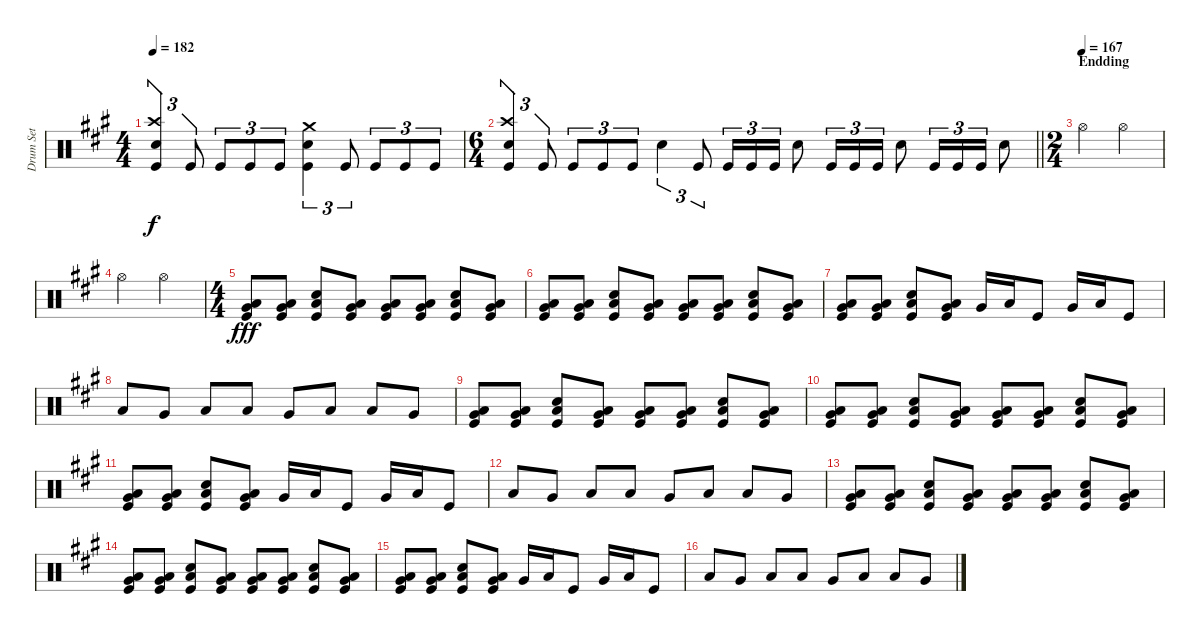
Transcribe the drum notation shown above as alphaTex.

\track ("Drum Set" "Drum Set") {instrument percussion}
\staff {score}
\articulation defaults
\ts (4 4)
\tempo 182
\clef neutral
\ks a
("Electric Snare (hit)" "Crash high (hit)" "Kick (hit)").4{tu (3 2) dy f} "Kick (hit)".8{tu (3 2)} "Kick (hit)".8{tu (3 2)} "Kick (hit)".8{tu (3 2)} "Kick (hit)".8{tu (3 2)} ("Electric Snare (hit)" "Crash medium (hit)" "Kick (hit)").4{tu (3 2)} "Kick (hit)".8{tu (3 2)} "Kick (hit)".8{tu (3 2)} "Kick (hit)".8{tu (3 2)} "Kick (hit)".8{tu (3 2)} |
\ts (6 4)
\barLineRight lightlight
("Electric Snare (hit)" "Crash high (hit)" "Kick (hit)").4{tu (3 2)} "Kick (hit)".8{tu (3 2)} "Kick (hit)".8{tu (3 2)} "Kick (hit)".8{tu (3 2)} "Kick (hit)".8{tu (3 2)} "Electric Snare (hit)".4{tu (3 2)} "Kick (hit)".8{tu (3 2)} "Kick (hit)".16{tu (3 2)} "Kick (hit)".16{tu (3 2)} "Kick (hit)".16{tu (3 2)} "Electric Snare (hit)".8 "Kick (hit)".16{tu (3 2)} "Kick (hit)".16{tu (3 2)} "Kick (hit)".16{tu (3 2)} "Electric Snare (hit)".8 "Kick (hit)".16{tu (3 2)} "Kick (hit)".16{tu (3 2)} "Kick (hit)".16{tu (3 2)} "Electric Snare (hit)".8 |
\ts (2 4)
\section ("" "Endding")
\tempo (167)
"Hi-Hat (open)".4 "Hi-Hat (open)".4 |
"Hi-Hat (open)".4 "Hi-Hat (open)".4 |
\ts (4 4)
("Very Low Tom (hit)" "Low Floor Tom (hit)" "Kick (hit)").8{dy fff} ("Very Low Tom (hit)" "Low Floor Tom (hit)" "Kick (hit)").8 ("Electric Snare (hit)" "Low Floor Tom (hit)" "Kick (hit)").8 ("Very Low Tom (hit)" "Low Floor Tom (hit)" "Kick (hit)").8 ("Very Low Tom (hit)" "Low Floor Tom (hit)" "Kick (hit)").8 ("Very Low Tom (hit)" "Low Floor Tom (hit)" "Kick (hit)").8 ("Electric Snare (hit)" "Low Floor Tom (hit)" "Kick (hit)").8 ("Very Low Tom (hit)" "Low Floor Tom (hit)" "Kick (hit)").8 |
("Very Low Tom (hit)" "Low Floor Tom (hit)" "Kick (hit)").8 ("Very Low Tom (hit)" "Low Floor Tom (hit)" "Kick (hit)").8 ("Electric Snare (hit)" "Low Floor Tom (hit)" "Kick (hit)").8 ("Very Low Tom (hit)" "Low Floor Tom (hit)" "Kick (hit)").8 ("Very Low Tom (hit)" "Low Floor Tom (hit)" "Kick (hit)").8 ("Very Low Tom (hit)" "Low Floor Tom (hit)" "Kick (hit)").8 ("Electric Snare (hit)" "Low Floor Tom (hit)" "Kick (hit)").8 ("Very Low Tom (hit)" "Low Floor Tom (hit)" "Kick (hit)").8 |
("Very Low Tom (hit)" "Low Floor Tom (hit)" "Kick (hit)").8 ("Very Low Tom (hit)" "Low Floor Tom (hit)" "Kick (hit)").8 ("Electric Snare (hit)" "Low Floor Tom (hit)" "Kick (hit)").8 ("Very Low Tom (hit)" "Low Floor Tom (hit)" "Kick (hit)").8 "Very Low Tom (hit)".16 "Low Floor Tom (hit)".16 "Kick (hit)".8 "Very Low Tom (hit)".16 "Low Floor Tom (hit)".16 "Kick (hit)".8 |
"Low Tom (hit)".8 "Very Low Tom (hit)".8 "Low Floor Tom (hit)".8 "Low Tom (hit)".8 "Very Low Tom (hit)".8 "Low Floor Tom (hit)".8 "Low Tom (hit)".8 "Very Low Tom (hit)".8 |
("Very Low Tom (hit)" "Low Floor Tom (hit)" "Kick (hit)").8 ("Very Low Tom (hit)" "Low Floor Tom (hit)" "Kick (hit)").8 ("Electric Snare (hit)" "Low Floor Tom (hit)" "Kick (hit)").8 ("Very Low Tom (hit)" "Low Floor Tom (hit)" "Kick (hit)").8 ("Very Low Tom (hit)" "Low Floor Tom (hit)" "Kick (hit)").8 ("Very Low Tom (hit)" "Low Floor Tom (hit)" "Kick (hit)").8 ("Electric Snare (hit)" "Low Floor Tom (hit)" "Kick (hit)").8 ("Very Low Tom (hit)" "Low Floor Tom (hit)" "Kick (hit)").8 |
("Very Low Tom (hit)" "Low Floor Tom (hit)" "Kick (hit)").8 ("Very Low Tom (hit)" "Low Floor Tom (hit)" "Kick (hit)").8 ("Electric Snare (hit)" "Low Floor Tom (hit)" "Kick (hit)").8 ("Very Low Tom (hit)" "Low Floor Tom (hit)" "Kick (hit)").8 ("Very Low Tom (hit)" "Low Floor Tom (hit)" "Kick (hit)").8 ("Very Low Tom (hit)" "Low Floor Tom (hit)" "Kick (hit)").8 ("Electric Snare (hit)" "Low Floor Tom (hit)" "Kick (hit)").8 ("Very Low Tom (hit)" "Low Floor Tom (hit)" "Kick (hit)").8 |
("Very Low Tom (hit)" "Low Floor Tom (hit)" "Kick (hit)").8 ("Very Low Tom (hit)" "Low Floor Tom (hit)" "Kick (hit)").8 ("Electric Snare (hit)" "Low Floor Tom (hit)" "Kick (hit)").8 ("Very Low Tom (hit)" "Low Floor Tom (hit)" "Kick (hit)").8 "Very Low Tom (hit)".16 "Low Floor Tom (hit)".16 "Kick (hit)".8 "Very Low Tom (hit)".16 "Low Floor Tom (hit)".16 "Kick (hit)".8 |
"Low Tom (hit)".8 "Very Low Tom (hit)".8 "Low Floor Tom (hit)".8 "Low Tom (hit)".8 "Very Low Tom (hit)".8 "Low Floor Tom (hit)".8 "Low Tom (hit)".8 "Very Low Tom (hit)".8 |
("Very Low Tom (hit)" "Low Floor Tom (hit)" "Kick (hit)").8 ("Very Low Tom (hit)" "Low Floor Tom (hit)" "Kick (hit)").8 ("Electric Snare (hit)" "Low Floor Tom (hit)" "Kick (hit)").8 ("Very Low Tom (hit)" "Low Floor Tom (hit)" "Kick (hit)").8 ("Very Low Tom (hit)" "Low Floor Tom (hit)" "Kick (hit)").8 ("Very Low Tom (hit)" "Low Floor Tom (hit)" "Kick (hit)").8 ("Electric Snare (hit)" "Low Floor Tom (hit)" "Kick (hit)").8 ("Very Low Tom (hit)" "Low Floor Tom (hit)" "Kick (hit)").8 |
("Very Low Tom (hit)" "Low Floor Tom (hit)" "Kick (hit)").8 ("Very Low Tom (hit)" "Low Floor Tom (hit)" "Kick (hit)").8 ("Electric Snare (hit)" "Low Floor Tom (hit)" "Kick (hit)").8 ("Very Low Tom (hit)" "Low Floor Tom (hit)" "Kick (hit)").8 ("Very Low Tom (hit)" "Low Floor Tom (hit)" "Kick (hit)").8 ("Very Low Tom (hit)" "Low Floor Tom (hit)" "Kick (hit)").8 ("Electric Snare (hit)" "Low Floor Tom (hit)" "Kick (hit)").8 ("Very Low Tom (hit)" "Low Floor Tom (hit)" "Kick (hit)").8 |
("Very Low Tom (hit)" "Low Floor Tom (hit)" "Kick (hit)").8 ("Very Low Tom (hit)" "Low Floor Tom (hit)" "Kick (hit)").8 ("Electric Snare (hit)" "Low Floor Tom (hit)" "Kick (hit)").8 ("Very Low Tom (hit)" "Low Floor Tom (hit)" "Kick (hit)").8 "Very Low Tom (hit)".16 "Low Floor Tom (hit)".16 "Kick (hit)".8 "Very Low Tom (hit)".16 "Low Floor Tom (hit)".16 "Kick (hit)".8 |
"Low Tom (hit)".8 "Very Low Tom (hit)".8 "Low Floor Tom (hit)".8 "Low Tom (hit)".8 "Very Low Tom (hit)".8 "Low Floor Tom (hit)".8 "Low Tom (hit)".8 "Very Low Tom (hit)".8
